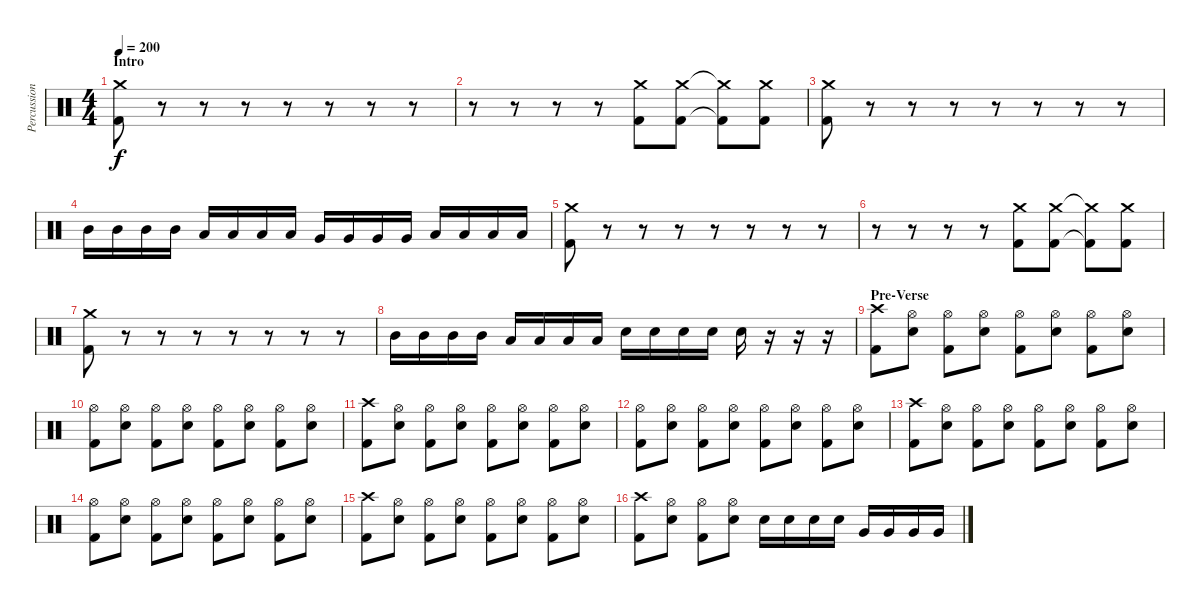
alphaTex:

\track ("Percussion" "Percussion") {instrument percussion}
\staff {score}
\articulation defaults
\ts (4 4)
\section ("" "Intro")
\tempo 200
\clef neutral
\ks c
("Crash medium (hit)" "Kick (hit) 2").8{dy f} r.8 r.8 r.8 r.8 r.8 r.8 r.8 |
r.8 r.8 r.8 r.8 ("Crash medium (hit)" "Kick (hit) 2").8 ("Crash medium (hit)" "Kick (hit) 2").8 ("Crash medium (hit)"{t} "Kick (hit) 2"{t}).8 ("Crash medium (hit)" "Kick (hit) 2").8 |
("Crash medium (hit)" "Kick (hit) 2").8 r.8 r.8 r.8 r.8 r.8 r.8 r.8 |
"Mid Tom (hit)".16 "Mid Tom (hit)".16 "Mid Tom (hit)".16 "Mid Tom (hit)".16 "Low Tom (hit)".16 "Low Tom (hit)".16 "Low Tom (hit)".16 "Low Tom (hit)".16 "Very Low Tom (hit)".16 "Very Low Tom (hit)".16 "Very Low Tom (hit)".16 "Very Low Tom (hit)".16 "Low Floor Tom (hit)".16 "Low Floor Tom (hit)".16 "Low Floor Tom (hit)".16 "Low Floor Tom (hit)".16 |
("Crash medium (hit)" "Kick (hit) 2").8 r.8 r.8 r.8 r.8 r.8 r.8 r.8 |
r.8 r.8 r.8 r.8 ("Crash medium (hit)" "Kick (hit) 2").8 ("Crash medium (hit)" "Kick (hit) 2").8 ("Crash medium (hit)"{t} "Kick (hit) 2"{t}).8 ("Crash medium (hit)" "Kick (hit) 2").8 |
("Crash medium (hit)" "Kick (hit) 2").8 r.8 r.8 r.8 r.8 r.8 r.8 r.8 |
"Mid Tom (hit)".16 "Mid Tom (hit)".16 "Mid Tom (hit)".16 "Mid Tom (hit)".16 "Low Tom (hit)".16 "Low Tom (hit)".16 "Low Tom (hit)".16 "Low Tom (hit)".16 "Snare (hit) 2".16 "Snare (hit) 2".16 "Snare (hit) 2".16 "Snare (hit) 2".16 "Snare (hit) 2".16 r.16 r.16 r.16 |
\section ("" "Pre-Verse")
("Crash high (hit)" "Kick (hit) 2").8 ("Hi-Hat (open)" "Snare (hit) 2").8 ("Hi-Hat (open)" "Kick (hit) 2").8 ("Hi-Hat (open)" "Snare (hit) 2").8 ("Hi-Hat (open)" "Kick (hit) 2").8 ("Hi-Hat (open)" "Snare (hit) 2").8 ("Hi-Hat (open)" "Kick (hit) 2").8 ("Hi-Hat (open)" "Snare (hit) 2").8 |
("Hi-Hat (open)" "Kick (hit) 2").8 ("Hi-Hat (open)" "Snare (hit) 2").8 ("Hi-Hat (open)" "Kick (hit) 2").8 ("Hi-Hat (open)" "Snare (hit) 2").8 ("Hi-Hat (open)" "Kick (hit) 2").8 ("Hi-Hat (open)" "Snare (hit) 2").8 ("Hi-Hat (open)" "Kick (hit) 2").8 ("Hi-Hat (open)" "Snare (hit) 2").8 |
("Crash high (hit)" "Kick (hit) 2").8 ("Hi-Hat (open)" "Snare (hit) 2").8 ("Hi-Hat (open)" "Kick (hit) 2").8 ("Hi-Hat (open)" "Snare (hit) 2").8 ("Hi-Hat (open)" "Kick (hit) 2").8 ("Hi-Hat (open)" "Snare (hit) 2").8 ("Hi-Hat (open)" "Kick (hit) 2").8 ("Hi-Hat (open)" "Snare (hit) 2").8 |
("Hi-Hat (open)" "Kick (hit) 2").8 ("Hi-Hat (open)" "Snare (hit) 2").8 ("Hi-Hat (open)" "Kick (hit) 2").8 ("Hi-Hat (open)" "Snare (hit) 2").8 ("Hi-Hat (open)" "Kick (hit) 2").8 ("Hi-Hat (open)" "Snare (hit) 2").8 ("Hi-Hat (open)" "Kick (hit) 2").8 ("Hi-Hat (open)" "Snare (hit) 2").8 |
("Crash high (hit)" "Kick (hit) 2").8 ("Hi-Hat (open)" "Snare (hit) 2").8 ("Hi-Hat (open)" "Kick (hit) 2").8 ("Hi-Hat (open)" "Snare (hit) 2").8 ("Hi-Hat (open)" "Kick (hit) 2").8 ("Hi-Hat (open)" "Snare (hit) 2").8 ("Hi-Hat (open)" "Kick (hit) 2").8 ("Hi-Hat (open)" "Snare (hit) 2").8 |
("Hi-Hat (open)" "Kick (hit) 2").8 ("Hi-Hat (open)" "Snare (hit) 2").8 ("Hi-Hat (open)" "Kick (hit) 2").8 ("Hi-Hat (open)" "Snare (hit) 2").8 ("Hi-Hat (open)" "Kick (hit) 2").8 ("Hi-Hat (open)" "Snare (hit) 2").8 ("Hi-Hat (open)" "Kick (hit) 2").8 ("Hi-Hat (open)" "Snare (hit) 2").8 |
("Crash high (hit)" "Kick (hit) 2").8 ("Hi-Hat (open)" "Snare (hit) 2").8 ("Hi-Hat (open)" "Kick (hit) 2").8 ("Hi-Hat (open)" "Snare (hit) 2").8 ("Hi-Hat (open)" "Kick (hit) 2").8 ("Hi-Hat (open)" "Snare (hit) 2").8 ("Hi-Hat (open)" "Kick (hit) 2").8 ("Hi-Hat (open)" "Snare (hit) 2").8 |
("Crash high (hit)" "Kick (hit) 2").8 ("Hi-Hat (open)" "Snare (hit) 2").8 ("Hi-Hat (open)" "Kick (hit) 2").8 ("Hi-Hat (open)" "Snare (hit) 2").8 "Snare (hit) 2".16 "Snare (hit) 2".16 "Snare (hit) 2".16 "Snare (hit) 2".16 "Very Low Tom (hit)".16 "Very Low Tom (hit)".16 "Very Low Tom (hit)".16 "Very Low Tom (hit)".16
